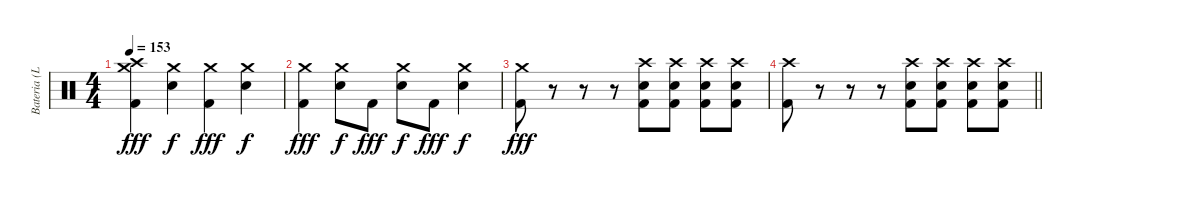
\track ("Bateria (Lars)" "Bateria (L") {instrument percussion}
\staff {score}
\articulation defaults
\ts (4 4)
\tempo 153
\clef neutral
\ks c
("Crash medium (hit)" "Crash high (hit)" "Kick (hit) 2").4{dy fff} ("Crash medium (hit)" "Electric Snare (hit)").4{dy f} ("Crash medium (hit)" "Kick (hit) 2").4{dy fff} ("Crash medium (hit)" "Electric Snare (hit)").4{dy f} |
("Crash medium (hit)" "Kick (hit) 2").4{dy fff} ("Crash medium (hit)" "Electric Snare (hit)").8{dy f} "Kick (hit) 2".8{dy fff} ("Crash medium (hit)" "Electric Snare (hit)").8{dy f} "Kick (hit) 2".8{dy fff} ("Crash medium (hit)" "Electric Snare (hit)").4{dy f} |
("Crash medium (hit)" "Kick (hit) 2").8{dy fff} r.8 r.8 r.8 ("Crash high (hit)" "Electric Snare (hit)" "Kick (hit) 2").8 ("Crash high (hit)" "Electric Snare (hit)" "Kick (hit) 2").8 ("Crash high (hit)" "Electric Snare (hit)" "Kick (hit) 2").8 ("Crash high (hit)" "Electric Snare (hit)" "Kick (hit) 2").8 |
\barLineRight lightlight
("Crash high (hit)" "Kick (hit) 2").8 r.8 r.8 r.8 ("Crash high (hit)" "Electric Snare (hit)" "Kick (hit) 2").8 ("Crash high (hit)" "Electric Snare (hit)" "Kick (hit) 2").8 ("Crash high (hit)" "Electric Snare (hit)" "Kick (hit) 2").8 ("Crash high (hit)" "Electric Snare (hit)" "Kick (hit) 2").8
